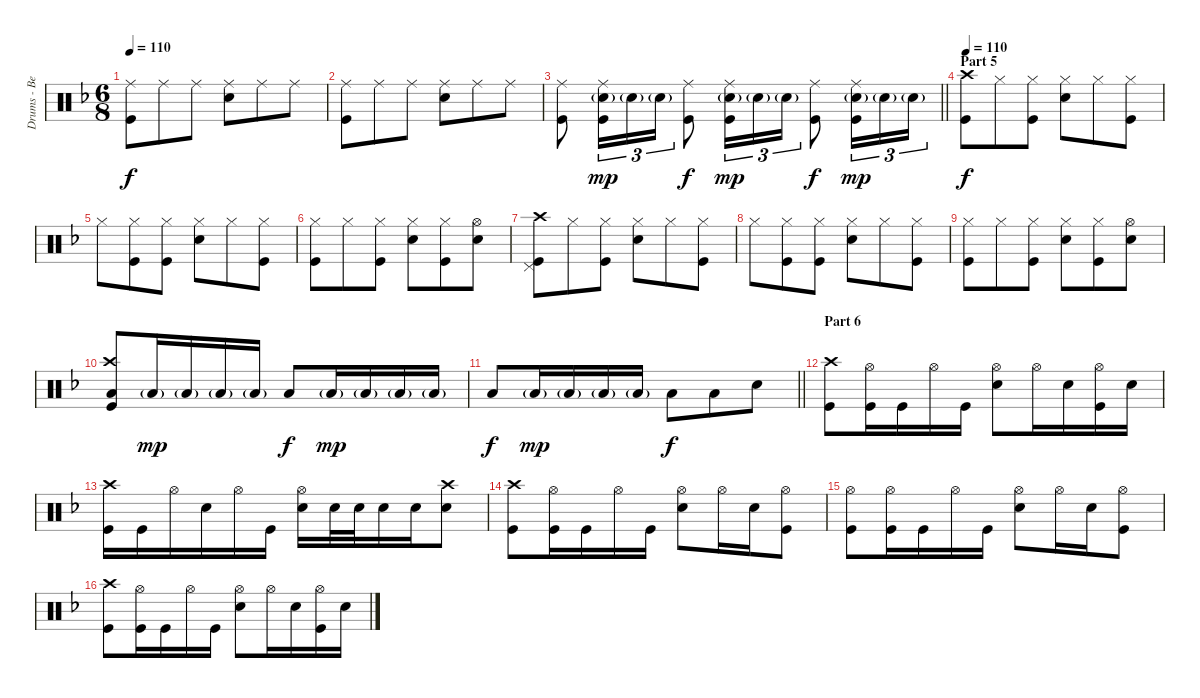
\track ("Drums - Ben Johnston" "Drums - Be") {instrument percussion}
\staff {score}
\articulation defaults
\ts (6 8)
\tempo 110
\clef neutral
\ks dminor
("Ride (middle)" "Kick (hit)").8{dy f} "Ride (middle)".8 "Ride (middle)".8 ("Ride (middle)" "Snare (hit) 2").8 "Ride (middle)".8 "Ride (middle)".8 |
("Ride (middle)" "Kick (hit)").8 "Ride (middle)".8 "Ride (middle)".8 ("Ride (middle)" "Snare (hit) 2").8 "Ride (middle)".8 "Ride (middle)".8 |
\barLineRight lightlight
("Ride (middle)" "Kick (hit)").8 ("Ride (middle)" "Snare (hit) 2"{g} "Kick (hit)").16{tu (3 2) dy mp} "Snare (hit) 2"{g}.16{tu (3 2)} "Snare (hit) 2"{g}.16{tu (3 2)} ("Ride (middle)" "Kick (hit)").8{dy f} ("Ride (middle)" "Snare (hit) 2"{g} "Kick (hit)").16{tu (3 2) dy mp} "Snare (hit) 2"{g}.16{tu (3 2)} "Snare (hit) 2"{g}.16{tu (3 2)} ("Ride (middle)" "Kick (hit)").8{dy f} ("Ride (middle)" "Snare (hit) 2"{g} "Kick (hit)").16{tu (3 2) dy mp} "Snare (hit) 2"{g}.16{tu (3 2)} "Snare (hit) 2"{g}.16{tu (3 2)} |
\section ("" "Part 5")
\tempo 110
("Crash high (hit)" "Kick (hit)").8{dy f} "Hi-Hat (closed)".8 ("Hi-Hat (closed)" "Kick (hit)").8 ("Hi-Hat (closed)" "Snare (hit) 2").8 "Hi-Hat (closed)".8 ("Hi-Hat (closed)" "Kick (hit)").8 |
"Hi-Hat (closed)".8 ("Hi-Hat (closed)" "Kick (hit)").8 ("Hi-Hat (closed)" "Kick (hit)").8 ("Hi-Hat (closed)" "Snare (hit) 2").8 "Hi-Hat (closed)".8 ("Hi-Hat (closed)" "Kick (hit)").8 |
("Hi-Hat (closed)" "Kick (hit)").8 "Hi-Hat (closed)".8 ("Hi-Hat (closed)" "Kick (hit)").8 ("Hi-Hat (closed)" "Snare (hit) 2").8 ("Hi-Hat (closed)" "Kick (hit)").8 ("Hi-Hat (open)" "Snare (hit) 2").8 |
("Crash high (hit)" "Pedal Hi-Hat (hit)" "Kick (hit)").8 "Hi-Hat (closed)".8 ("Hi-Hat (closed)" "Kick (hit)").8 ("Hi-Hat (closed)" "Snare (hit) 2").8 "Hi-Hat (closed)".8 ("Hi-Hat (closed)" "Kick (hit)").8 |
"Hi-Hat (closed)".8 ("Hi-Hat (closed)" "Kick (hit)").8 ("Hi-Hat (closed)" "Kick (hit)").8 ("Hi-Hat (closed)" "Snare (hit) 2").8 "Hi-Hat (closed)".8 ("Hi-Hat (closed)" "Kick (hit)").8 |
("Hi-Hat (closed)" "Kick (hit)").8 "Hi-Hat (closed)".8 ("Hi-Hat (closed)" "Kick (hit)").8 ("Hi-Hat (closed)" "Snare (hit) 2").8 ("Hi-Hat (closed)" "Kick (hit)").8 ("Hi-Hat (open)" "Snare (hit) 2").8 |
("Crash high (hit)" "Low Tom (hit)" "Kick (hit)").8 "Low Tom (hit)"{g}.16{dy mp} "Low Tom (hit)"{g}.16 "Low Tom (hit)"{g}.16 "Low Tom (hit)"{g}.16 "Low Tom (hit)".8{dy f} "Low Tom (hit)"{g}.16{dy mp} "Low Tom (hit)"{g}.16 "Low Tom (hit)"{g}.16 "Low Tom (hit)"{g}.16 |
\barLineRight lightlight "Low Tom (hit)".8{dy f} "Low Tom (hit)"{g}.16{dy mp} "Low Tom (hit)"{g}.16 "Low Tom (hit)"{g}.16 "Low Tom (hit)"{g}.16 "Low Tom (hit)".8{dy f} "Low Tom (hit)".8 "Snare (hit) 2".8
|
\section ("" "Part 6")
("Crash high (hit)" "Kick (hit)").8{volume 14} ("Hi-Hat (open)" "Kick (hit)").16 "Kick (hit)".16 "Hi-Hat (open)".16 "Kick (hit)".16 ("Hi-Hat (open)" "Snare (hit) 2").8 "Hi-Hat (open)".16 "Snare (hit) 2".16 ("Hi-Hat (open)" "Kick (hit)").16 "Snare (hit) 2".16 |
("Crash high (hit)" "Kick (hit)").16 "Kick (hit)".16 "Hi-Hat (open)".16 "Snare (hit) 2".16 "Hi-Hat (open)".16 "Kick (hit)".16 ("Hi-Hat (open)" "Snare (hit) 2").16 "Snare (hit) 2".32 "Snare (hit) 2".32 "Snare (hit) 2".16 "Snare (hit) 2".16 ("Crash high (hit)" "Snare (hit) 2").8 |
("Crash high (hit)" "Kick (hit)").8 ("Hi-Hat (open)" "Kick (hit)").16 "Kick (hit)".16 "Hi-Hat (open)".16 "Kick (hit)".16 ("Hi-Hat (open)" "Snare (hit) 2").8 "Hi-Hat (open)".16 "Snare (hit) 2".16 ("Hi-Hat (open)" "Kick (hit)").8 |
("Hi-Hat (open)" "Kick (hit)").8 ("Hi-Hat (open)" "Kick (hit)").16 "Kick (hit)".16 "Hi-Hat (open)".16 "Kick (hit)".16 ("Hi-Hat (open)" "Snare (hit) 2").8 "Hi-Hat (open)".16 "Snare (hit) 2".16 ("Hi-Hat (open)" "Kick (hit)").8 |
("Crash high (hit)" "Kick (hit)").8 ("Hi-Hat (open)" "Kick (hit)").16 "Kick (hit)".16 "Hi-Hat (open)".16 "Kick (hit)".16 ("Hi-Hat (open)" "Snare (hit) 2").8 "Hi-Hat (open)".16 "Snare (hit) 2".16 ("Hi-Hat (open)" "Kick (hit)").16 "Snare (hit) 2".16
